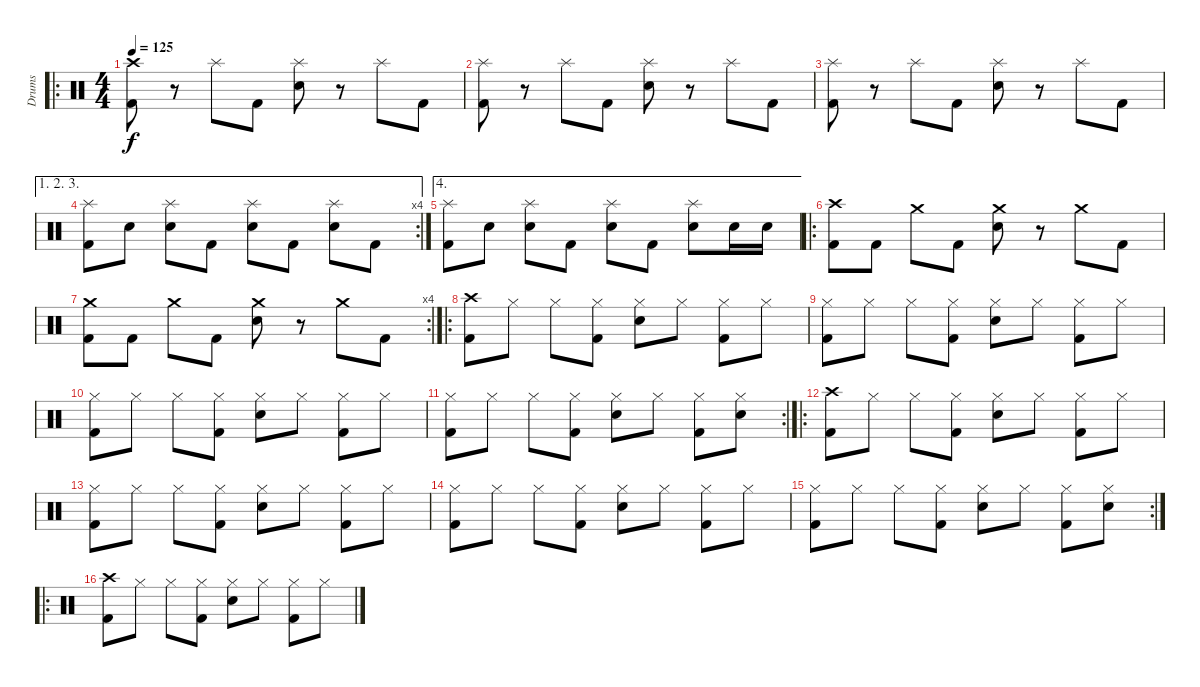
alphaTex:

\track ("Drums" "Drums") {instrument percussion}
\staff {score}
\articulation defaults
\ro
\ts (4 4)
\tempo 125
\clef neutral
\ks c
("Crash high (hit)" "Kick (hit) 2").8{dy f} r.8 "Splash (hit)".8 "Kick (hit) 2".8 ("Splash (hit)" "Snare (hit) 2").8 r.8 "Splash (hit)".8 "Kick (hit) 2".8 |
("Splash (hit)" "Kick (hit) 2").8 r.8 "Splash (hit)".8 "Kick (hit) 2".8 ("Splash (hit)" "Snare (hit) 2").8 r.8 "Splash (hit)".8 "Kick (hit) 2".8 |
("Splash (hit)" "Kick (hit) 2").8 r.8 "Splash (hit)".8 "Kick (hit) 2".8 ("Splash (hit)" "Snare (hit) 2").8 r.8 "Splash (hit)".8 "Kick (hit) 2".8 |
\ae (1 2 3)
\rc 4
("Splash (hit)" "Kick (hit) 2").8 "Snare (hit) 2".8 ("Splash (hit)" "Snare (hit) 2").8 "Kick (hit) 2".8 ("Splash (hit)" "Snare (hit) 2").8 "Kick (hit) 2".8 ("Splash (hit)" "Snare (hit) 2").8 "Kick (hit) 2".8 |
\ae 4
("Splash (hit)" "Kick (hit) 2").8 "Snare (hit) 2".8 ("Splash (hit)" "Snare (hit) 2").8 "Kick (hit) 2".8 ("Splash (hit)" "Snare (hit) 2").8 "Kick (hit) 2".8 ("Splash (hit)" "Snare (hit) 2").8 "Snare (hit) 2".16 "Snare (hit) 2".16 |
\ro
("Crash high (hit)" "Kick (hit) 2").8 "Kick (hit) 2".8 "Crash medium (hit)".8 "Kick (hit) 2".8 ("Crash medium (hit)" "Snare (hit) 2").8 r.8 "Crash medium (hit)".8 "Kick (hit) 2".8 |
\rc 4
("Crash medium (hit)" "Kick (hit) 2").8 "Kick (hit) 2".8 "Crash medium (hit)".8 "Kick (hit) 2".8 ("Crash medium (hit)" "Snare (hit) 2").8 r.8 "Crash medium (hit)".8 "Kick (hit) 2".8 |
\ro
("Crash high (hit)" "Kick (hit) 2").8 "Hi-Hat (closed)".8 "Hi-Hat (closed)".8 ("Hi-Hat (closed)" "Kick (hit) 2").8 ("Hi-Hat (closed)" "Snare (hit) 2").8 "Hi-Hat (closed)".8 ("Hi-Hat (closed)" "Kick (hit) 2").8 "Hi-Hat (closed)".8 |
("Hi-Hat (closed)" "Kick (hit) 2").8 "Hi-Hat (closed)".8 "Hi-Hat (closed)".8 ("Hi-Hat (closed)" "Kick (hit) 2").8 ("Hi-Hat (closed)" "Snare (hit) 2").8 "Hi-Hat (closed)".8 ("Hi-Hat (closed)" "Kick (hit) 2").8 "Hi-Hat (closed)".8 |
("Hi-Hat (closed)" "Kick (hit) 2").8 "Hi-Hat (closed)".8 "Hi-Hat (closed)".8 ("Hi-Hat (closed)" "Kick (hit) 2").8 ("Hi-Hat (closed)" "Snare (hit) 2").8 "Hi-Hat (closed)".8 ("Hi-Hat (closed)" "Kick (hit) 2").8 "Hi-Hat (closed)".8 |
\rc 2
("Hi-Hat (closed)" "Kick (hit) 2").8 "Hi-Hat (closed)".8 "Hi-Hat (closed)".8 ("Hi-Hat (closed)" "Kick (hit) 2").8 ("Hi-Hat (closed)" "Snare (hit) 2").8 "Hi-Hat (closed)".8 ("Hi-Hat (closed)" "Kick (hit) 2").8 ("Hi-Hat (closed)" "Snare (hit) 2").8 |
\ro
("Crash high (hit)" "Kick (hit) 2").8 "Hi-Hat (closed)".8 "Hi-Hat (closed)".8 ("Hi-Hat (closed)" "Kick (hit) 2").8 ("Hi-Hat (closed)" "Snare (hit) 2").8 "Hi-Hat (closed)".8 ("Hi-Hat (closed)" "Kick (hit) 2").8 "Hi-Hat (closed)".8 |
("Hi-Hat (closed)" "Kick (hit) 2").8 "Hi-Hat (closed)".8 "Hi-Hat (closed)".8 ("Hi-Hat (closed)" "Kick (hit) 2").8 ("Hi-Hat (closed)" "Snare (hit) 2").8 "Hi-Hat (closed)".8 ("Hi-Hat (closed)" "Kick (hit) 2").8 "Hi-Hat (closed)".8 |
("Hi-Hat (closed)" "Kick (hit) 2").8 "Hi-Hat (closed)".8 "Hi-Hat (closed)".8 ("Hi-Hat (closed)" "Kick (hit) 2").8 ("Hi-Hat (closed)" "Snare (hit) 2").8 "Hi-Hat (closed)".8 ("Hi-Hat (closed)" "Kick (hit) 2").8 "Hi-Hat (closed)".8 |
\rc 2
("Hi-Hat (closed)" "Kick (hit) 2").8 "Hi-Hat (closed)".8 "Hi-Hat (closed)".8 ("Hi-Hat (closed)" "Kick (hit) 2").8 ("Hi-Hat (closed)" "Snare (hit) 2").8 "Hi-Hat (closed)".8 ("Hi-Hat (closed)" "Kick (hit) 2").8 ("Hi-Hat (closed)" "Snare (hit) 2").8 |
\ro
("Crash high (hit)" "Kick (hit) 2").8 "Hi-Hat (closed)".8 "Hi-Hat (closed)".8 ("Hi-Hat (closed)" "Kick (hit) 2").8 ("Hi-Hat (closed)" "Snare (hit) 2").8 "Hi-Hat (closed)".8 ("Hi-Hat (closed)" "Kick (hit) 2").8 "Hi-Hat (closed)".8
